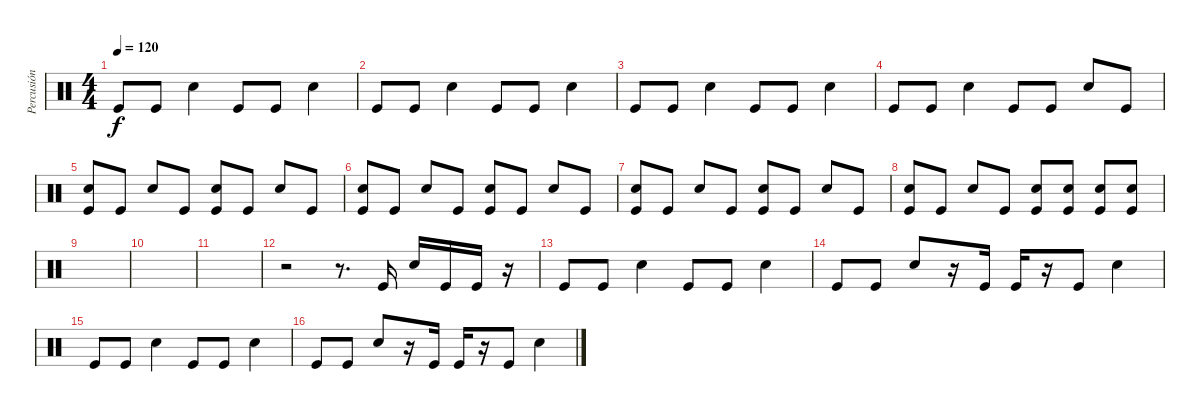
\track ("Percusión" "Percusión") {instrument percussion}
\staff {score}
\articulation defaults
\ts (4 4)
\tempo 120
\clef neutral
\ks c "Kick (hit)".8{dy f} "Kick (hit)".8 "Snare (hit) 2".4 "Kick (hit)".8 "Kick (hit)".8 "Snare (hit) 2".4
|
"Kick (hit)".8 "Kick (hit)".8 "Snare (hit) 2".4 "Kick (hit)".8 "Kick (hit)".8 "Snare (hit) 2".4 |
"Kick (hit)".8 "Kick (hit)".8 "Snare (hit) 2".4 "Kick (hit)".8 "Kick (hit)".8 "Snare (hit) 2".4 |
"Kick (hit)".8 "Kick (hit)".8 "Snare (hit) 2".4 "Kick (hit)".8 "Kick (hit)".8 "Snare (hit) 2".8 "Kick (hit)".8 |
("Snare (hit) 2" "Kick (hit)").8 "Kick (hit)".8 "Snare (hit) 2".8 "Kick (hit)".8 ("Snare (hit) 2" "Kick (hit)").8 "Kick (hit)".8 "Snare (hit) 2".8 "Kick (hit)".8 |
("Snare (hit) 2" "Kick (hit)").8 "Kick (hit)".8 "Snare (hit) 2".8 "Kick (hit)".8 ("Snare (hit) 2" "Kick (hit)").8 "Kick (hit)".8 "Snare (hit) 2".8 "Kick (hit)".8 |
("Snare (hit) 2" "Kick (hit)").8 "Kick (hit)".8 "Snare (hit) 2".8 "Kick (hit)".8 ("Snare (hit) 2" "Kick (hit)").8 "Kick (hit)".8 "Snare (hit) 2".8 "Kick (hit)".8 |
("Snare (hit) 2" "Kick (hit)").8 "Kick (hit)".8 "Snare (hit) 2".8 "Kick (hit)".8 ("Snare (hit) 2" "Kick (hit)").8 ("Snare (hit) 2" "Kick (hit)").8 ("Snare (hit) 2" "Kick (hit)").8 ("Snare (hit) 2" "Kick (hit)").8 |
|
|
|
r.2 r.8{d} "Kick (hit)".16 "Snare (hit) 2".16 "Kick (hit)".16 "Kick (hit)".16 r.16 |
"Kick (hit)".8 "Kick (hit)".8 "Snare (hit) 2".4 "Kick (hit)".8 "Kick (hit)".8 "Snare (hit) 2".4 |
"Kick (hit)".8 "Kick (hit)".8 "Snare (hit) 2".8 r.16 "Kick (hit)".16 "Kick (hit)".16 r.16 "Kick (hit)".8 "Snare (hit) 2".4 |
"Kick (hit)".8 "Kick (hit)".8 "Snare (hit) 2".4 "Kick (hit)".8 "Kick (hit)".8 "Snare (hit) 2".4 |
"Kick (hit)".8 "Kick (hit)".8 "Snare (hit) 2".8 r.16 "Kick (hit)".16 "Kick (hit)".16 r.16 "Kick (hit)".8 "Snare (hit) 2".4
